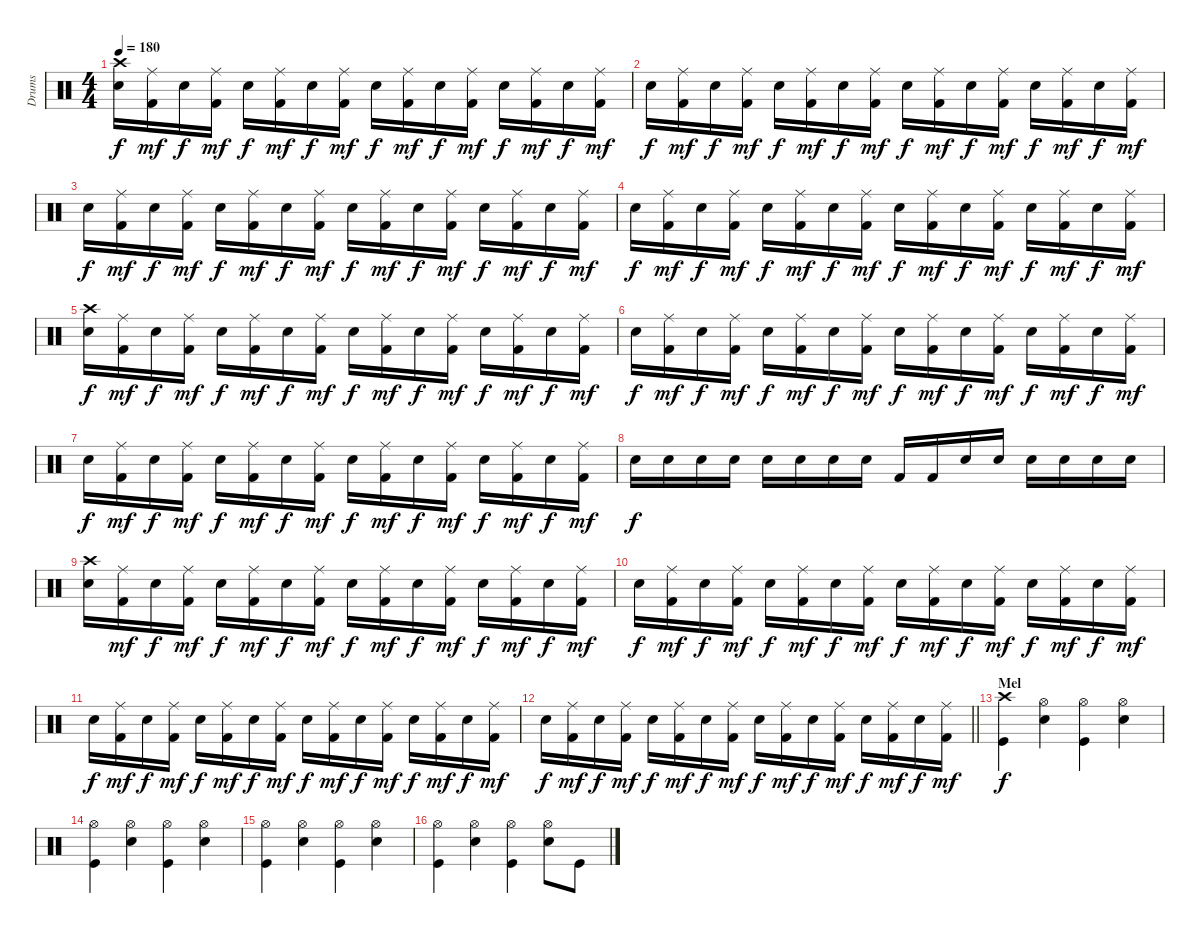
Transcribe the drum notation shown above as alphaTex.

\track ("Drums" "Drums") {instrument percussion}
\staff {score}
\articulation defaults
\ts (4 4)
\tempo 180
\clef neutral
\ks c
("Crash high (hit)" "Snare (hit) 2").16{dy f} ("Ride (middle)" "Kick (hit) 2").16{dy mf} "Snare (hit) 2".16{dy f} ("Ride (middle)" "Kick (hit) 2").16{dy mf} "Snare (hit) 2".16{dy f} ("Ride (middle)" "Kick (hit) 2").16{dy mf} "Snare (hit) 2".16{dy f} ("Ride (middle)" "Kick (hit) 2").16{dy mf} "Snare (hit) 2".16{dy f} ("Ride (middle)" "Kick (hit) 2").16{dy mf} "Snare (hit) 2".16{dy f} ("Ride (middle)" "Kick (hit) 2").16{dy mf} "Snare (hit) 2".16{dy f} ("Ride (middle)" "Kick (hit) 2").16{dy mf} "Snare (hit) 2".16{dy f} ("Ride (middle)" "Kick (hit) 2").16{dy mf} |
"Snare (hit) 2".16{dy f} ("Ride (middle)" "Kick (hit) 2").16{dy mf} "Snare (hit) 2".16{dy f} ("Ride (middle)" "Kick (hit) 2").16{dy mf} "Snare (hit) 2".16{dy f} ("Ride (middle)" "Kick (hit) 2").16{dy mf} "Snare (hit) 2".16{dy f} ("Ride (middle)" "Kick (hit) 2").16{dy mf} "Snare (hit) 2".16{dy f} ("Ride (middle)" "Kick (hit) 2").16{dy mf} "Snare (hit) 2".16{dy f} ("Ride (middle)" "Kick (hit) 2").16{dy mf} "Snare (hit) 2".16{dy f} ("Ride (middle)" "Kick (hit) 2").16{dy mf} "Snare (hit) 2".16{dy f} ("Ride (middle)" "Kick (hit) 2").16{dy mf} |
"Snare (hit) 2".16{dy f} ("Ride (middle)" "Kick (hit) 2").16{dy mf} "Snare (hit) 2".16{dy f} ("Ride (middle)" "Kick (hit) 2").16{dy mf} "Snare (hit) 2".16{dy f} ("Ride (middle)" "Kick (hit) 2").16{dy mf} "Snare (hit) 2".16{dy f} ("Ride (middle)" "Kick (hit) 2").16{dy mf} "Snare (hit) 2".16{dy f} ("Ride (middle)" "Kick (hit) 2").16{dy mf} "Snare (hit) 2".16{dy f} ("Ride (middle)" "Kick (hit) 2").16{dy mf} "Snare (hit) 2".16{dy f} ("Ride (middle)" "Kick (hit) 2").16{dy mf} "Snare (hit) 2".16{dy f} ("Ride (middle)" "Kick (hit) 2").16{dy mf} |
"Snare (hit) 2".16{dy f} ("Ride (middle)" "Kick (hit) 2").16{dy mf} "Snare (hit) 2".16{dy f} ("Ride (middle)" "Kick (hit) 2").16{dy mf} "Snare (hit) 2".16{dy f} ("Ride (middle)" "Kick (hit) 2").16{dy mf} "Snare (hit) 2".16{dy f} ("Ride (middle)" "Kick (hit) 2").16{dy mf} "Snare (hit) 2".16{dy f} ("Ride (middle)" "Kick (hit) 2").16{dy mf} "Snare (hit) 2".16{dy f} ("Ride (middle)" "Kick (hit) 2").16{dy mf} "Snare (hit) 2".16{dy f} ("Ride (middle)" "Kick (hit) 2").16{dy mf} "Snare (hit) 2".16{dy f} ("Ride (middle)" "Kick (hit) 2").16{dy mf} |
("Crash high (hit)" "Snare (hit) 2").16{dy f} ("Ride (middle)" "Kick (hit) 2").16{dy mf} "Snare (hit) 2".16{dy f} ("Ride (middle)" "Kick (hit) 2").16{dy mf} "Snare (hit) 2".16{dy f} ("Ride (middle)" "Kick (hit) 2").16{dy mf} "Snare (hit) 2".16{dy f} ("Ride (middle)" "Kick (hit) 2").16{dy mf} "Snare (hit) 2".16{dy f} ("Ride (middle)" "Kick (hit) 2").16{dy mf} "Snare (hit) 2".16{dy f} ("Ride (middle)" "Kick (hit) 2").16{dy mf} "Snare (hit) 2".16{dy f} ("Ride (middle)" "Kick (hit) 2").16{dy mf} "Snare (hit) 2".16{dy f} ("Ride (middle)" "Kick (hit) 2").16{dy mf} |
"Snare (hit) 2".16{dy f} ("Ride (middle)" "Kick (hit) 2").16{dy mf} "Snare (hit) 2".16{dy f} ("Ride (middle)" "Kick (hit) 2").16{dy mf} "Snare (hit) 2".16{dy f} ("Ride (middle)" "Kick (hit) 2").16{dy mf} "Snare (hit) 2".16{dy f} ("Ride (middle)" "Kick (hit) 2").16{dy mf} "Snare (hit) 2".16{dy f} ("Ride (middle)" "Kick (hit) 2").16{dy mf} "Snare (hit) 2".16{dy f} ("Ride (middle)" "Kick (hit) 2").16{dy mf} "Snare (hit) 2".16{dy f} ("Ride (middle)" "Kick (hit) 2").16{dy mf} "Snare (hit) 2".16{dy f} ("Ride (middle)" "Kick (hit) 2").16{dy mf} |
"Snare (hit) 2".16{dy f} ("Ride (middle)" "Kick (hit) 2").16{dy mf} "Snare (hit) 2".16{dy f} ("Ride (middle)" "Kick (hit) 2").16{dy mf} "Snare (hit) 2".16{dy f} ("Ride (middle)" "Kick (hit) 2").16{dy mf} "Snare (hit) 2".16{dy f} ("Ride (middle)" "Kick (hit) 2").16{dy mf} "Snare (hit) 2".16{dy f} ("Ride (middle)" "Kick (hit) 2").16{dy mf} "Snare (hit) 2".16{dy f} ("Ride (middle)" "Kick (hit) 2").16{dy mf} "Snare (hit) 2".16{dy f} ("Ride (middle)" "Kick (hit) 2").16{dy mf} "Snare (hit) 2".16{dy f} ("Ride (middle)" "Kick (hit) 2").16{dy mf} |
"Snare (hit) 2".16{dy f} "Snare (hit) 2".16 "Snare (hit) 2".16 "Snare (hit) 2".16 "Snare (hit) 2".16 "Snare (hit) 2".16 "Snare (hit) 2".16 "Snare (hit) 2".16 "Kick (hit) 2".16 "Kick (hit) 2".16 "Snare (hit) 2".16 "Snare (hit) 2".16 "Snare (hit) 2".16 "Snare (hit) 2".16 "Snare (hit) 2".16 "Snare (hit) 2".16 |
("Crash high (hit)" "Snare (hit) 2").16 ("Ride (middle)" "Kick (hit) 2").16{dy mf} "Snare (hit) 2".16{dy f} ("Ride (middle)" "Kick (hit) 2").16{dy mf} "Snare (hit) 2".16{dy f} ("Ride (middle)" "Kick (hit) 2").16{dy mf} "Snare (hit) 2".16{dy f} ("Ride (middle)" "Kick (hit) 2").16{dy mf} "Snare (hit) 2".16{dy f} ("Ride (middle)" "Kick (hit) 2").16{dy mf} "Snare (hit) 2".16{dy f} ("Ride (middle)" "Kick (hit) 2").16{dy mf} "Snare (hit) 2".16{dy f} ("Ride (middle)" "Kick (hit) 2").16{dy mf} "Snare (hit) 2".16{dy f} ("Ride (middle)" "Kick (hit) 2").16{dy mf} |
"Snare (hit) 2".16{dy f} ("Ride (middle)" "Kick (hit) 2").16{dy mf} "Snare (hit) 2".16{dy f} ("Ride (middle)" "Kick (hit) 2").16{dy mf} "Snare (hit) 2".16{dy f} ("Ride (middle)" "Kick (hit) 2").16{dy mf} "Snare (hit) 2".16{dy f} ("Ride (middle)" "Kick (hit) 2").16{dy mf} "Snare (hit) 2".16{dy f} ("Ride (middle)" "Kick (hit) 2").16{dy mf} "Snare (hit) 2".16{dy f} ("Ride (middle)" "Kick (hit) 2").16{dy mf} "Snare (hit) 2".16{dy f} ("Ride (middle)" "Kick (hit) 2").16{dy mf} "Snare (hit) 2".16{dy f} ("Ride (middle)" "Kick (hit) 2").16{dy mf} |
"Snare (hit) 2".16{dy f} ("Ride (middle)" "Kick (hit) 2").16{dy mf} "Snare (hit) 2".16{dy f} ("Ride (middle)" "Kick (hit) 2").16{dy mf} "Snare (hit) 2".16{dy f} ("Ride (middle)" "Kick (hit) 2").16{dy mf} "Snare (hit) 2".16{dy f} ("Ride (middle)" "Kick (hit) 2").16{dy mf} "Snare (hit) 2".16{dy f} ("Ride (middle)" "Kick (hit) 2").16{dy mf} "Snare (hit) 2".16{dy f} ("Ride (middle)" "Kick (hit) 2").16{dy mf} "Snare (hit) 2".16{dy f} ("Ride (middle)" "Kick (hit) 2").16{dy mf} "Snare (hit) 2".16{dy f} ("Ride (middle)" "Kick (hit) 2").16{dy mf} |
\barLineRight lightlight "Snare (hit) 2".16{dy f}
("Ride (middle)" "Kick (hit) 2").16{dy mf} "Snare (hit) 2".16{dy f} ("Ride (middle)" "Kick (hit) 2").16{dy mf} "Snare (hit) 2".16{dy f} ("Ride (middle)" "Kick (hit) 2").16{dy mf} "Snare (hit) 2".16{dy f} ("Ride (middle)" "Kick (hit) 2").16{dy mf} "Snare (hit) 2".16{dy f} ("Ride (middle)" "Kick (hit) 2").16{dy mf} "Snare (hit) 2".16{dy f} ("Ride (middle)" "Kick (hit) 2").16{dy mf} "Snare (hit) 2".16{dy f} ("Ride (middle)" "Kick (hit) 2").16{dy mf} "Snare (hit) 2".16{dy f} ("Ride (middle)" "Kick (hit) 2").16{dy mf} |
\section ("" "Mel")
("Crash high (hit)" "Kick (hit)").4{dy f} ("Hi-Hat (open)" "Electric Snare (hit)").4 ("Hi-Hat (open)" "Kick (hit)").4 ("Hi-Hat (open)" "Electric Snare (hit)").4 |
("Hi-Hat (open)" "Kick (hit)").4 ("Hi-Hat (open)" "Electric Snare (hit)").4 ("Hi-Hat (open)" "Kick (hit)").4 ("Hi-Hat (open)" "Electric Snare (hit)").4 |
("Hi-Hat (open)" "Kick (hit)").4 ("Hi-Hat (open)" "Electric Snare (hit)").4 ("Hi-Hat (open)" "Kick (hit)").4 ("Hi-Hat (open)" "Electric Snare (hit)").4 |
("Hi-Hat (open)" "Kick (hit)").4 ("Hi-Hat (open)" "Electric Snare (hit)").4 ("Hi-Hat (open)" "Kick (hit)").4 ("Hi-Hat (open)" "Electric Snare (hit)").8 "Kick (hit)".8
